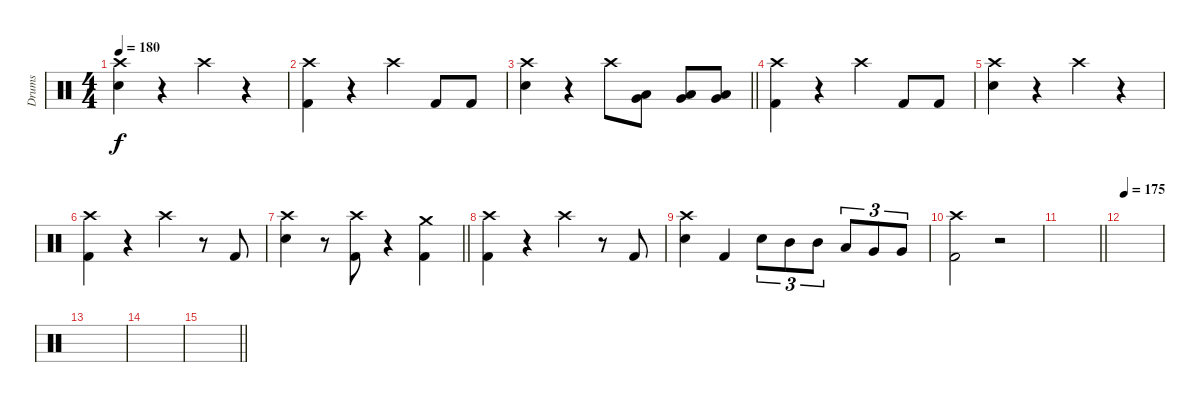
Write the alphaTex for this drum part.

\track ("Drums" "Drums") {instrument percussion}
\staff {score}
\articulation defaults
\ts (4 4)
\tempo 180
\clef neutral
\ks c
("Crash high (hit)" "Electric Snare (hit)").4{dy f} r.4 "Crash high (hit)".4 r.4 |
("Crash high (hit)" "Kick (hit) 2").4 r.4 "Crash high (hit)".4 "Kick (hit) 2".8 "Kick (hit) 2".8 |
\barLineRight lightlight
("Crash high (hit)" "Electric Snare (hit)").4 r.4 "Crash high (hit)".8 ("Low Tom (hit)" "Very Low Tom (hit)").8 ("Low Tom (hit)" "Very Low Tom (hit)").8 ("Low Tom (hit)" "Very Low Tom (hit)").8 |
("Crash high (hit)" "Kick (hit) 2").4 r.4 "Crash high (hit)".4 "Kick (hit) 2".8 "Kick (hit) 2".8 |
("Crash high (hit)" "Electric Snare (hit)").4 r.4 "Crash high (hit)".4 r.4 |
("Crash high (hit)" "Kick (hit) 2").4 r.4 "Crash high (hit)".4 r.8 "Kick (hit) 2".8 |
\barLineRight lightlight
("Crash high (hit)" "Electric Snare (hit)").4 r.8 ("Crash high (hit)" "Kick (hit) 2").8 r.4 ("Crash medium (hit)" "Kick (hit) 2").4 |
("Crash high (hit)" "Kick (hit) 2").4 r.4 "Crash high (hit)".4 r.8 "Kick (hit) 2".8 |
("Crash high (hit)" "Electric Snare (hit)").4 "Kick (hit) 2".4 "Electric Snare (hit)".8{tu (3 2)} "Mid Tom (hit)".8{tu (3 2)} "Mid Tom (hit)".8{tu (3 2)} "Low Tom (hit)".8{tu (3 2)} "Very Low Tom (hit)".8{tu (3 2)} "Very Low Tom (hit)".8{tu (3 2)} |
("Crash high (hit)" "Kick (hit) 2").2 r.2 |
\barLineRight lightlight
|
\tempo 175
|
|
|
\barLineRight lightlight
